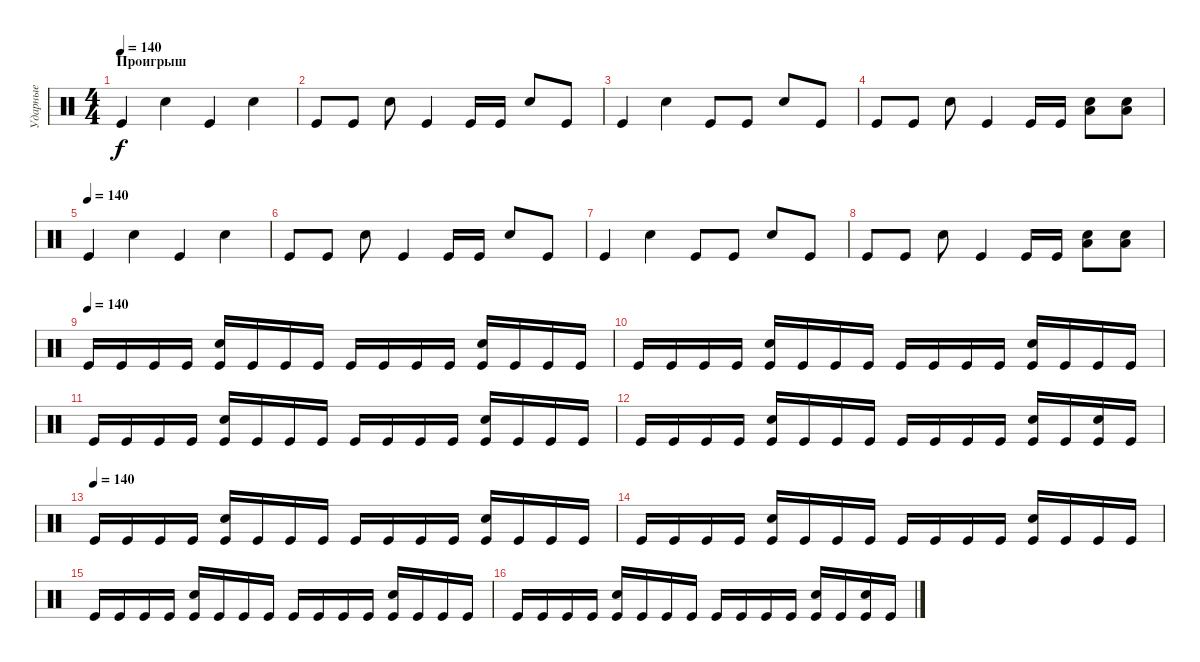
\track ("Ударные" "Ударные") {instrument percussion}
\staff {score}
\articulation defaults
\ts (4 4)
\section ("" "Проигрыш")
\tempo 140
\clef neutral
\ks c "Kick (hit)".4{dy f} "Electric Snare (hit)".4 "Kick (hit)".4 "Electric Snare (hit)".4
|
"Kick (hit)".8 "Kick (hit)".8 "Electric Snare (hit)".8 "Kick (hit)".4 "Kick (hit)".16 "Kick (hit)".16 "Electric Snare (hit)".8 "Kick (hit)".8 |
"Kick (hit)".4 "Electric Snare (hit)".4 "Kick (hit)".8 "Kick (hit)".8 "Electric Snare (hit)".8 "Kick (hit)".8 |
"Kick (hit)".8 "Kick (hit)".8 "Electric Snare (hit)".8 "Kick (hit)".4 "Kick (hit)".16 "Kick (hit)".16 ("Low Floor Tom (hit)" "Electric Snare (hit)").8 ("Low Floor Tom (hit)" "Electric Snare (hit)").8 |
\tempo (140)
"Kick (hit)".4 "Electric Snare (hit)".4 "Kick (hit)".4 "Electric Snare (hit)".4 |
"Kick (hit)".8 "Kick (hit)".8 "Electric Snare (hit)".8 "Kick (hit)".4 "Kick (hit)".16 "Kick (hit)".16 "Electric Snare (hit)".8 "Kick (hit)".8 |
"Kick (hit)".4 "Electric Snare (hit)".4 "Kick (hit)".8 "Kick (hit)".8 "Electric Snare (hit)".8 "Kick (hit)".8 |
"Kick (hit)".8 "Kick (hit)".8 "Electric Snare (hit)".8 "Kick (hit)".4 "Kick (hit)".16 "Kick (hit)".16 ("Low Floor Tom (hit)" "Electric Snare (hit)").8 ("Low Floor Tom (hit)" "Electric Snare (hit)").8 |
\tempo (140)
"Kick (hit)".16 "Kick (hit)".16 "Kick (hit)".16 "Kick (hit)".16 ("Kick (hit)" "Electric Snare (hit)").16 "Kick (hit)".16 "Kick (hit)".16 "Kick (hit)".16 "Kick (hit)".16 "Kick (hit)".16 "Kick (hit)".16 "Kick (hit)".16 ("Kick (hit)" "Electric Snare (hit)").16 "Kick (hit)".16 "Kick (hit)".16 "Kick (hit)".16 |
"Kick (hit)".16 "Kick (hit)".16 "Kick (hit)".16 "Kick (hit)".16 ("Kick (hit)" "Electric Snare (hit)").16 "Kick (hit)".16 "Kick (hit)".16 "Kick (hit)".16 "Kick (hit)".16 "Kick (hit)".16 "Kick (hit)".16 "Kick (hit)".16 ("Kick (hit)" "Electric Snare (hit)").16 "Kick (hit)".16 "Kick (hit)".16 "Kick (hit)".16 |
"Kick (hit)".16 "Kick (hit)".16 "Kick (hit)".16 "Kick (hit)".16 ("Kick (hit)" "Electric Snare (hit)").16 "Kick (hit)".16 "Kick (hit)".16 "Kick (hit)".16 "Kick (hit)".16 "Kick (hit)".16 "Kick (hit)".16 "Kick (hit)".16 ("Kick (hit)" "Electric Snare (hit)").16 "Kick (hit)".16 "Kick (hit)".16 "Kick (hit)".16 |
"Kick (hit)".16 "Kick (hit)".16 "Kick (hit)".16 "Kick (hit)".16 ("Kick (hit)" "Electric Snare (hit)").16 "Kick (hit)".16 "Kick (hit)".16 "Kick (hit)".16 "Kick (hit)".16 "Kick (hit)".16 "Kick (hit)".16 "Kick (hit)".16 ("Kick (hit)" "Electric Snare (hit)").16 "Kick (hit)".16 ("Kick (hit)" "Electric Snare (hit)").16 "Kick (hit)".16 |
\tempo (140)
"Kick (hit)".16 "Kick (hit)".16 "Kick (hit)".16 "Kick (hit)".16 ("Kick (hit)" "Electric Snare (hit)").16 "Kick (hit)".16 "Kick (hit)".16 "Kick (hit)".16 "Kick (hit)".16 "Kick (hit)".16 "Kick (hit)".16 "Kick (hit)".16 ("Kick (hit)" "Electric Snare (hit)").16 "Kick (hit)".16 "Kick (hit)".16 "Kick (hit)".16 |
"Kick (hit)".16 "Kick (hit)".16 "Kick (hit)".16 "Kick (hit)".16 ("Kick (hit)" "Electric Snare (hit)").16 "Kick (hit)".16 "Kick (hit)".16 "Kick (hit)".16 "Kick (hit)".16 "Kick (hit)".16 "Kick (hit)".16 "Kick (hit)".16 ("Kick (hit)" "Electric Snare (hit)").16 "Kick (hit)".16 "Kick (hit)".16 "Kick (hit)".16 |
"Kick (hit)".16 "Kick (hit)".16 "Kick (hit)".16 "Kick (hit)".16 ("Kick (hit)" "Electric Snare (hit)").16 "Kick (hit)".16 "Kick (hit)".16 "Kick (hit)".16 "Kick (hit)".16 "Kick (hit)".16 "Kick (hit)".16 "Kick (hit)".16 ("Kick (hit)" "Electric Snare (hit)").16 "Kick (hit)".16 "Kick (hit)".16 "Kick (hit)".16 |
"Kick (hit)".16 "Kick (hit)".16 "Kick (hit)".16 "Kick (hit)".16 ("Kick (hit)" "Electric Snare (hit)").16 "Kick (hit)".16 "Kick (hit)".16 "Kick (hit)".16 "Kick (hit)".16 "Kick (hit)".16 "Kick (hit)".16 "Kick (hit)".16 ("Kick (hit)" "Electric Snare (hit)").16 "Kick (hit)".16 ("Kick (hit)" "Electric Snare (hit)").16 "Kick (hit)".16
